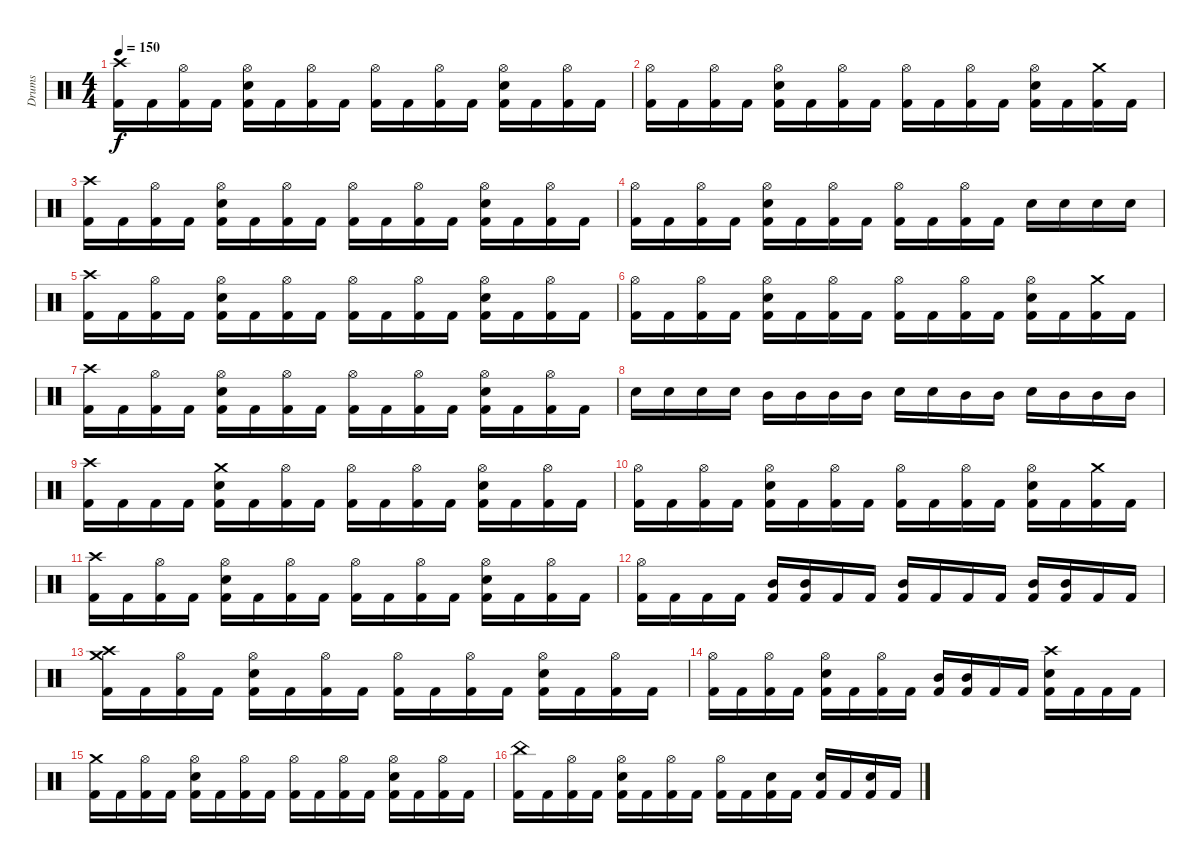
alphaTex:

\track ("Drums" "Drums") {instrument percussion}
\staff {score}
\articulation defaults
\ts (4 4)
\tempo 150
\clef neutral
\ks c
("Crash high (hit)" "Kick (hit) 2").16{dy f} "Kick (hit) 2".16 ("Hi-Hat (open)" "Kick (hit) 2").16 "Kick (hit) 2".16 ("Hi-Hat (open)" "Snare (hit) 2" "Kick (hit) 2").16 "Kick (hit) 2".16 ("Hi-Hat (open)" "Kick (hit) 2").16 "Kick (hit) 2".16 ("Hi-Hat (open)" "Kick (hit) 2").16 "Kick (hit) 2".16 ("Hi-Hat (open)" "Kick (hit) 2").16 "Kick (hit) 2".16 ("Hi-Hat (open)" "Snare (hit) 2" "Kick (hit) 2").16 "Kick (hit) 2".16 ("Hi-Hat (open)" "Kick (hit) 2").16 "Kick (hit) 2".16 |
("Hi-Hat (open)" "Kick (hit) 2").16 "Kick (hit) 2".16 ("Hi-Hat (open)" "Kick (hit) 2").16 "Kick (hit) 2".16 ("Hi-Hat (open)" "Snare (hit) 2" "Kick (hit) 2").16 "Kick (hit) 2".16 ("Hi-Hat (open)" "Kick (hit) 2").16 "Kick (hit) 2".16 ("Hi-Hat (open)" "Kick (hit) 2").16 "Kick (hit) 2".16 ("Hi-Hat (open)" "Kick (hit) 2").16 "Kick (hit) 2".16 ("Hi-Hat (open)" "Snare (hit) 2" "Kick (hit) 2").16 "Kick (hit) 2".16 ("Crash medium (hit)" "Kick (hit) 2").16 "Kick (hit) 2".16 |
("Crash high (hit)" "Kick (hit) 2").16 "Kick (hit) 2".16 ("Hi-Hat (open)" "Kick (hit) 2").16 "Kick (hit) 2".16 ("Hi-Hat (open)" "Snare (hit) 2" "Kick (hit) 2").16 "Kick (hit) 2".16 ("Hi-Hat (open)" "Kick (hit) 2").16 "Kick (hit) 2".16 ("Hi-Hat (open)" "Kick (hit) 2").16 "Kick (hit) 2".16 ("Hi-Hat (open)" "Kick (hit) 2").16 "Kick (hit) 2".16 ("Hi-Hat (open)" "Snare (hit) 2" "Kick (hit) 2").16 "Kick (hit) 2".16 ("Hi-Hat (open)" "Kick (hit) 2").16 "Kick (hit) 2".16 |
("Hi-Hat (open)" "Kick (hit) 2").16 "Kick (hit) 2".16 ("Hi-Hat (open)" "Kick (hit) 2").16 "Kick (hit) 2".16 ("Hi-Hat (open)" "Snare (hit) 2" "Kick (hit) 2").16 "Kick (hit) 2".16 ("Hi-Hat (open)" "Kick (hit) 2").16 "Kick (hit) 2".16 ("Hi-Hat (open)" "Kick (hit) 2").16 "Kick (hit) 2".16 ("Hi-Hat (open)" "Kick (hit) 2").16 "Kick (hit) 2".16 "Electric Snare (hit)".16 "Electric Snare (hit)".16 "Electric Snare (hit)".16 "Electric Snare (hit)".16 |
("Crash high (hit)" "Kick (hit) 2").16 "Kick (hit) 2".16 ("Hi-Hat (open)" "Kick (hit) 2").16 "Kick (hit) 2".16 ("Hi-Hat (open)" "Snare (hit) 2" "Kick (hit) 2").16 "Kick (hit) 2".16 ("Hi-Hat (open)" "Kick (hit) 2").16 "Kick (hit) 2".16 ("Hi-Hat (open)" "Kick (hit) 2").16 "Kick (hit) 2".16 ("Hi-Hat (open)" "Kick (hit) 2").16 "Kick (hit) 2".16 ("Hi-Hat (open)" "Snare (hit) 2" "Kick (hit) 2").16 "Kick (hit) 2".16 ("Hi-Hat (open)" "Kick (hit) 2").16 "Kick (hit) 2".16 |
("Hi-Hat (open)" "Kick (hit) 2").16 "Kick (hit) 2".16 ("Hi-Hat (open)" "Kick (hit) 2").16 "Kick (hit) 2".16 ("Hi-Hat (open)" "Snare (hit) 2" "Kick (hit) 2").16 "Kick (hit) 2".16 ("Hi-Hat (open)" "Kick (hit) 2").16 "Kick (hit) 2".16 ("Hi-Hat (open)" "Kick (hit) 2").16 "Kick (hit) 2".16 ("Hi-Hat (open)" "Kick (hit) 2").16 "Kick (hit) 2".16 ("Hi-Hat (open)" "Snare (hit) 2" "Kick (hit) 2").16 "Kick (hit) 2".16 ("Crash medium (hit)" "Kick (hit) 2").16 "Kick (hit) 2".16 |
("Crash high (hit)" "Kick (hit) 2").16 "Kick (hit) 2".16 ("Hi-Hat (open)" "Kick (hit) 2").16 "Kick (hit) 2".16 ("Hi-Hat (open)" "Snare (hit) 2" "Kick (hit) 2").16 "Kick (hit) 2".16 ("Hi-Hat (open)" "Kick (hit) 2").16 "Kick (hit) 2".16 ("Hi-Hat (open)" "Kick (hit) 2").16 "Kick (hit) 2".16 ("Hi-Hat (open)" "Kick (hit) 2").16 "Kick (hit) 2".16 ("Hi-Hat (open)" "Snare (hit) 2" "Kick (hit) 2").16 "Kick (hit) 2".16 ("Hi-Hat (open)" "Kick (hit) 2").16 "Kick (hit) 2".16 |
"Snare (hit) 2".16 "Snare (hit) 2".16 "Snare (hit) 2".16 "Snare (hit) 2".16 "Mid Tom (hit)".16 "Mid Tom (hit)".16 "Mid Tom (hit)".16 "Mid Tom (hit)".16 "Snare (hit) 2".16 "Snare (hit) 2".16 "Mid Tom (hit)".16 "Mid Tom (hit)".16 "Snare (hit) 2".16 "Mid Tom (hit)".16 "Mid Tom (hit)".16 "Mid Tom (hit)".16 |
("Crash high (hit)" "Kick (hit) 2").16 "Kick (hit) 2".16 "Kick (hit) 2".16 "Kick (hit) 2".16 ("Crash medium (hit)" "Snare (hit) 2" "Kick (hit) 2").16 "Kick (hit) 2".16 ("Hi-Hat (open)" "Kick (hit) 2").16 "Kick (hit) 2".16 ("Hi-Hat (open)" "Kick (hit) 2").16 "Kick (hit) 2".16 ("Hi-Hat (open)" "Kick (hit) 2").16 "Kick (hit) 2".16 ("Hi-Hat (open)" "Snare (hit) 2" "Kick (hit) 2").16 "Kick (hit) 2".16 ("Hi-Hat (open)" "Kick (hit) 2").16 "Kick (hit) 2".16 |
("Hi-Hat (open)" "Kick (hit) 2").16 "Kick (hit) 2".16 ("Hi-Hat (open)" "Kick (hit) 2").16 "Kick (hit) 2".16 ("Hi-Hat (open)" "Snare (hit) 2" "Kick (hit) 2").16 "Kick (hit) 2".16 ("Hi-Hat (open)" "Kick (hit) 2").16 "Kick (hit) 2".16 ("Hi-Hat (open)" "Kick (hit) 2").16 "Kick (hit) 2".16 ("Hi-Hat (open)" "Kick (hit) 2").16 "Kick (hit) 2".16 ("Hi-Hat (open)" "Snare (hit) 2" "Kick (hit) 2").16 "Kick (hit) 2".16 ("Crash medium (hit)" "Kick (hit) 2").16 "Kick (hit) 2".16 |
("Crash high (hit)" "Kick (hit) 2").16 "Kick (hit) 2".16 ("Hi-Hat (open)" "Kick (hit) 2").16 "Kick (hit) 2".16 ("Hi-Hat (open)" "Snare (hit) 2" "Kick (hit) 2").16 "Kick (hit) 2".16 ("Hi-Hat (open)" "Kick (hit) 2").16 "Kick (hit) 2".16 ("Hi-Hat (open)" "Kick (hit) 2").16 "Kick (hit) 2".16 ("Hi-Hat (open)" "Kick (hit) 2").16 "Kick (hit) 2".16 ("Hi-Hat (open)" "Snare (hit) 2" "Kick (hit) 2").16 "Kick (hit) 2".16 ("Hi-Hat (open)" "Kick (hit) 2").16 "Kick (hit) 2".16 |
("Hi-Hat (open)" "Kick (hit) 2").16 "Kick (hit) 2".16 "Kick (hit) 2".16 "Kick (hit) 2".16 ("Mid Tom (hit)" "Kick (hit) 2").16 ("Mid Tom (hit)" "Kick (hit) 2").16 "Kick (hit) 2".16 "Kick (hit) 2".16 ("Mid Tom (hit)" "Kick (hit) 2").16 "Kick (hit) 2".16 "Kick (hit) 2".16 "Kick (hit) 2".16 ("Mid Tom (hit)" "Kick (hit) 2").16 ("Mid Tom (hit)" "Kick (hit) 2").16 "Kick (hit) 2".16 "Kick (hit) 2".16 |
("Crash high (hit)" "Crash medium (hit)" "Kick (hit) 2").16 "Kick (hit) 2".16 ("Hi-Hat (open)" "Kick (hit) 2").16 "Kick (hit) 2".16 ("Hi-Hat (open)" "Snare (hit) 2" "Kick (hit) 2").16 "Kick (hit) 2".16 ("Hi-Hat (open)" "Kick (hit) 2").16 "Kick (hit) 2".16 ("Hi-Hat (open)" "Kick (hit) 2").16 "Kick (hit) 2".16 ("Hi-Hat (open)" "Kick (hit) 2").16 "Kick (hit) 2".16 ("Hi-Hat (open)" "Snare (hit) 2" "Kick (hit) 2").16 "Kick (hit) 2".16 ("Hi-Hat (open)" "Kick (hit) 2").16 "Kick (hit) 2".16 |
("Hi-Hat (open)" "Kick (hit) 2").16 "Kick (hit) 2".16 ("Hi-Hat (open)" "Kick (hit) 2").16 "Kick (hit) 2".16 ("Hi-Hat (open)" "Snare (hit) 2" "Kick (hit) 2").16 "Kick (hit) 2".16 ("Hi-Hat (open)" "Kick (hit) 2").16 "Kick (hit) 2".16 ("Mid Tom (hit)" "Kick (hit) 2").16 ("Mid Tom (hit)" "Kick (hit) 2").16 "Kick (hit) 2".16 "Kick (hit) 2".16 ("Crash high (hit)" "Snare (hit) 2" "Kick (hit) 2").16 "Kick (hit) 2".16 "Kick (hit) 2".16 "Kick (hit) 2".16 |
("Crash medium (hit)" "Kick (hit) 2").16 "Kick (hit) 2".16 ("Hi-Hat (open)" "Kick (hit) 2").16 "Kick (hit) 2".16 ("Hi-Hat (open)" "Snare (hit) 2" "Kick (hit) 2").16 "Kick (hit) 2".16 ("Hi-Hat (open)" "Kick (hit) 2").16 "Kick (hit) 2".16 ("Hi-Hat (open)" "Kick (hit) 2").16 "Kick (hit) 2".16 ("Hi-Hat (open)" "Kick (hit) 2").16 "Kick (hit) 2".16 ("Hi-Hat (open)" "Snare (hit) 2" "Kick (hit) 2").16 "Kick (hit) 2".16 ("Hi-Hat (open)" "Kick (hit) 2").16 "Kick (hit) 2".16 |
("China (hit)" "Kick (hit) 2").16 "Kick (hit) 2".16 ("Hi-Hat (open)" "Kick (hit) 2").16 "Kick (hit) 2".16 ("Hi-Hat (open)" "Snare (hit) 2" "Kick (hit) 2").16 "Kick (hit) 2".16 ("Hi-Hat (open)" "Kick (hit) 2").16 "Kick (hit) 2".16 ("Hi-Hat (open)" "Kick (hit) 2").16 "Kick (hit) 2".16 ("Snare (hit) 2" "Kick (hit) 2").16 "Kick (hit) 2".16 ("Snare (hit) 2" "Kick (hit) 2").16 "Kick (hit) 2".16 ("Snare (hit) 2" "Kick (hit) 2").16 "Kick (hit) 2".16
